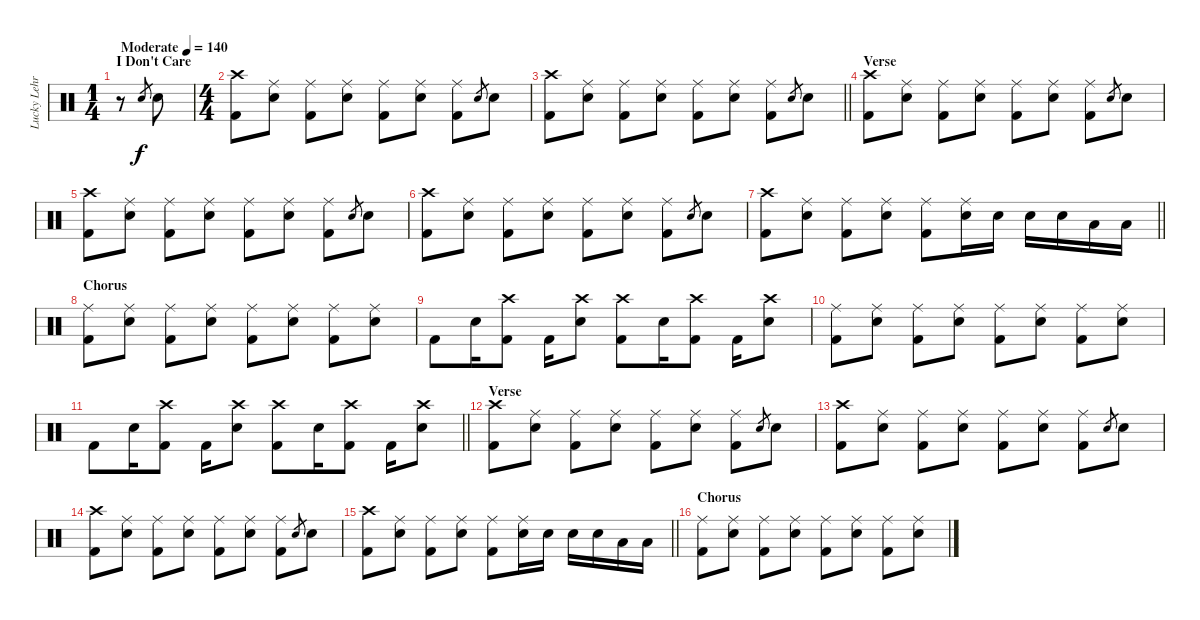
\track ("Lucky Lehrer" "Lucky Lehr") {instrument percussion}
\staff {score}
\articulation defaults
\ts (1 4)
\section ("" "I Don't Care")
\tempo (140 "Moderate")
\clef neutral
\ks c
r.8{dy f} "Electric Snare (hit)".8{gr} "Electric Snare (hit)".8 |
\ts (4 4)
("Crash high (hit)" "Kick (hit) 2").8 ("Ride (middle)" "Electric Snare (hit)").8 ("Ride (middle)" "Kick (hit) 2").8 ("Ride (middle)" "Electric Snare (hit)").8 ("Ride (middle)" "Kick (hit) 2").8 ("Ride (middle)" "Electric Snare (hit)").8 ("Ride (middle)" "Kick (hit) 2").8 "Electric Snare (hit)".8{gr} "Electric Snare (hit)".8 |
\barLineRight lightlight
("Crash high (hit)" "Kick (hit) 2").8 ("Ride (middle)" "Electric Snare (hit)").8 ("Ride (middle)" "Kick (hit) 2").8 ("Ride (middle)" "Electric Snare (hit)").8 ("Ride (middle)" "Kick (hit) 2").8 ("Ride (middle)" "Electric Snare (hit)").8 ("Ride (middle)" "Kick (hit) 2").8 "Electric Snare (hit)".8{gr} "Electric Snare (hit)".8 |
\section ("" "Verse")
("Crash high (hit)" "Kick (hit) 2").8 ("Ride (middle)" "Electric Snare (hit)").8 ("Ride (middle)" "Kick (hit) 2").8 ("Ride (middle)" "Electric Snare (hit)").8 ("Ride (middle)" "Kick (hit) 2").8 ("Ride (middle)" "Electric Snare (hit)").8 ("Ride (middle)" "Kick (hit) 2").8 "Electric Snare (hit)".8{gr} "Electric Snare (hit)".8 |
("Crash high (hit)" "Kick (hit) 2").8 ("Ride (middle)" "Electric Snare (hit)").8 ("Ride (middle)" "Kick (hit) 2").8 ("Ride (middle)" "Electric Snare (hit)").8 ("Ride (middle)" "Kick (hit) 2").8 ("Ride (middle)" "Electric Snare (hit)").8 ("Ride (middle)" "Kick (hit) 2").8 "Electric Snare (hit)".8{gr} "Electric Snare (hit)".8 |
("Crash high (hit)" "Kick (hit) 2").8 ("Ride (middle)" "Electric Snare (hit)").8 ("Ride (middle)" "Kick (hit) 2").8 ("Ride (middle)" "Electric Snare (hit)").8 ("Ride (middle)" "Kick (hit) 2").8 ("Ride (middle)" "Electric Snare (hit)").8 ("Ride (middle)" "Kick (hit) 2").8 "Electric Snare (hit)".8{gr} "Electric Snare (hit)".8 |
\barLineRight lightlight
("Crash high (hit)" "Kick (hit) 2").8 ("Ride (middle)" "Electric Snare (hit)").8 ("Ride (middle)" "Kick (hit) 2").8 ("Ride (middle)" "Electric Snare (hit)").8 ("Ride (middle)" "Kick (hit) 2").8 ("Ride (middle)" "Electric Snare (hit)").16 "Electric Snare (hit)".16 "Electric Snare (hit)".16 "Electric Snare (hit)".16 "Low Tom (hit)".16 "Low Tom (hit)".16 |
\section ("" "Chorus")
("Ride (middle)" "Kick (hit) 2").8 ("Ride (middle)" "Electric Snare (hit)").8 ("Ride (middle)" "Kick (hit) 2").8 ("Ride (middle)" "Electric Snare (hit)").8 ("Ride (middle)" "Kick (hit) 2").8 ("Ride (middle)" "Electric Snare (hit)").8 ("Ride (middle)" "Kick (hit) 2").8 ("Ride (middle)" "Electric Snare (hit)").8 |
"Kick (hit) 2".8 "Electric Snare (hit)".16 ("Crash high (hit)" "Kick (hit) 2").8 "Kick (hit) 2".16 ("Crash high (hit)" "Electric Snare (hit)").8 ("Crash high (hit)" "Kick (hit) 2").8 "Electric Snare (hit)".16 ("Crash high (hit)" "Kick (hit) 2").8 "Kick (hit) 2".16 ("Crash high (hit)" "Electric Snare (hit)").8 |
("Ride (middle)" "Kick (hit) 2").8 ("Ride (middle)" "Electric Snare (hit)").8 ("Ride (middle)" "Kick (hit) 2").8 ("Ride (middle)" "Electric Snare (hit)").8 ("Ride (middle)" "Kick (hit) 2").8 ("Ride (middle)" "Electric Snare (hit)").8 ("Ride (middle)" "Kick (hit) 2").8 ("Ride (middle)" "Electric Snare (hit)").8 |
\barLineRight lightlight "Kick (hit) 2".8 "Electric Snare (hit)".16
("Crash high (hit)" "Kick (hit) 2").8 "Kick (hit) 2".16 ("Crash high (hit)" "Electric Snare (hit)").8 ("Crash high (hit)" "Kick (hit) 2").8 "Electric Snare (hit)".16 ("Crash high (hit)" "Kick (hit) 2").8 "Kick (hit) 2".16 ("Crash high (hit)" "Electric Snare (hit)").8 |
\section ("" "Verse")
("Crash high (hit)" "Kick (hit) 2").8 ("Ride (middle)" "Electric Snare (hit)").8 ("Ride (middle)" "Kick (hit) 2").8 ("Ride (middle)" "Electric Snare (hit)").8 ("Ride (middle)" "Kick (hit) 2").8 ("Ride (middle)" "Electric Snare (hit)").8 ("Ride (middle)" "Kick (hit) 2").8 "Electric Snare (hit)".8{gr} "Electric Snare (hit)".8 |
("Crash high (hit)" "Kick (hit) 2").8 ("Ride (middle)" "Electric Snare (hit)").8 ("Ride (middle)" "Kick (hit) 2").8 ("Ride (middle)" "Electric Snare (hit)").8 ("Ride (middle)" "Kick (hit) 2").8 ("Ride (middle)" "Electric Snare (hit)").8 ("Ride (middle)" "Kick (hit) 2").8 "Electric Snare (hit)".8{gr} "Electric Snare (hit)".8 |
("Crash high (hit)" "Kick (hit) 2").8 ("Ride (middle)" "Electric Snare (hit)").8 ("Ride (middle)" "Kick (hit) 2").8 ("Ride (middle)" "Electric Snare (hit)").8 ("Ride (middle)" "Kick (hit) 2").8 ("Ride (middle)" "Electric Snare (hit)").8 ("Ride (middle)" "Kick (hit) 2").8 "Electric Snare (hit)".8{gr} "Electric Snare (hit)".8 |
\barLineRight lightlight
("Crash high (hit)" "Kick (hit) 2").8 ("Ride (middle)" "Electric Snare (hit)").8 ("Ride (middle)" "Kick (hit) 2").8 ("Ride (middle)" "Electric Snare (hit)").8 ("Ride (middle)" "Kick (hit) 2").8 ("Ride (middle)" "Electric Snare (hit)").16 "Electric Snare (hit)".16 "Electric Snare (hit)".16 "Electric Snare (hit)".16 "Low Tom (hit)".16 "Low Tom (hit)".16 |
\section ("" "Chorus")
("Ride (middle)" "Kick (hit) 2").8 ("Ride (middle)" "Electric Snare (hit)").8 ("Ride (middle)" "Kick (hit) 2").8 ("Ride (middle)" "Electric Snare (hit)").8 ("Ride (middle)" "Kick (hit) 2").8 ("Ride (middle)" "Electric Snare (hit)").8 ("Ride (middle)" "Kick (hit) 2").8 ("Ride (middle)" "Electric Snare (hit)").8
